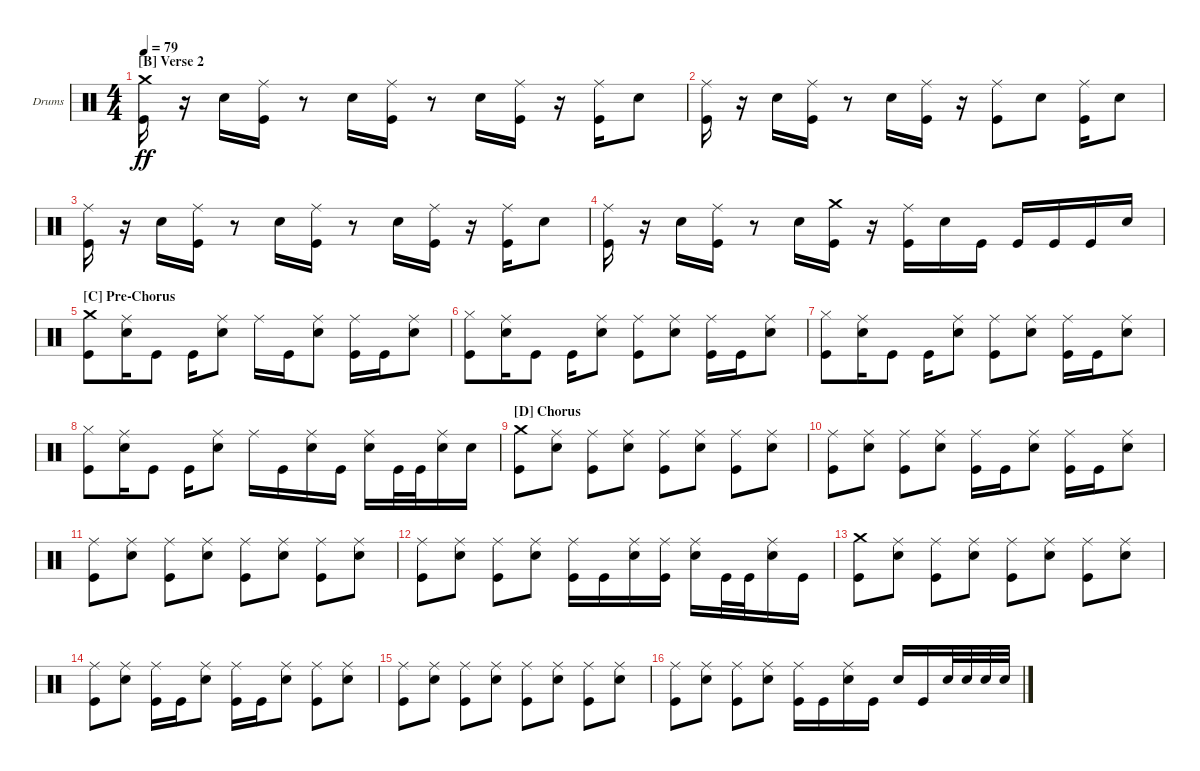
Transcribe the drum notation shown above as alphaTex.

\bracketExtendMode groupsimilarinstruments
\firstSystemTrackNameOrientation horizontal
\otherSystemsTrackNameOrientation horizontal
\track ("Drums" "Drums") {instrument percussion}
\staff {score}
\articulation defaults
\ts (4 4)
\section ("B" "Verse 2")
\tempo 79
\clef neutral
\ks c
("Kick (hit)" "Crash medium (hit)").16{dy ff beam split} r.16{beam split} "Snare (hit) 2".16 ("Kick (hit)" "Ride (middle)").16 r.8 "Snare (hit) 2".16 ("Kick (hit)" "Ride (middle)").16 r.8 "Snare (hit) 2".16 ("Kick (hit)" "Ride (middle)").16 r.16 ("Kick (hit)" "Ride (middle)").16 "Snare (hit) 2".8 |
("Kick (hit)" "Ride (middle)").16{beam split} r.16{beam split} "Snare (hit) 2".16 ("Kick (hit)" "Ride (middle)").16 r.8 "Snare (hit) 2".16 ("Kick (hit)" "Ride (middle)").16 r.16 ("Kick (hit)" "Ride (middle)").8 "Snare (hit) 2".8 ("Kick (hit)" "Ride (middle)").16 "Snare (hit) 2".8 |
("Kick (hit)" "Ride (middle)").16{beam split} r.16{beam split} "Snare (hit) 2".16 ("Kick (hit)" "Ride (middle)").16 r.8 "Snare (hit) 2".16 ("Kick (hit)" "Ride (middle)").16 r.8 "Snare (hit) 2".16 ("Kick (hit)" "Ride (middle)").16 r.16 ("Kick (hit)" "Ride (middle)").16 "Snare (hit) 2".8 |
("Kick (hit)" "Ride (middle)").16{beam split} r.16{beam split} "Snare (hit) 2".16 ("Kick (hit)" "Ride (middle)").16 r.8 "Snare (hit) 2".16 ("Kick (hit)" "Crash medium (hit)").16 r.16 ("Kick (hit)" "Ride (middle)").16 "Snare (hit) 2".16 "Kick (hit)".16 "Kick (hit)".16 "Kick (hit)".16 "Kick (hit)".16 "Snare (hit) 2".16 |
\section ("C" "Pre-Chorus")
("Kick (hit)" "Crash medium (hit)").8 ("Snare (hit) 2" "Ride (middle)").16 "Kick (hit)".8 "Kick (hit)".16 ("Snare (hit) 2" "Ride (middle)").8 "Ride (middle)".16 "Kick (hit)".16 ("Snare (hit) 2" "Ride (middle)").8 ("Kick (hit)" "Ride (middle)").16 "Kick (hit)".16 ("Snare (hit) 2" "Ride (middle)").8 |
("Kick (hit)" "Hi-Hat (closed)").8 ("Snare (hit) 2" "Ride (middle)").16 "Kick (hit)".8 "Kick (hit)".16 ("Snare (hit) 2" "Ride (middle)").8 ("Ride (middle)" "Kick (hit)").8 ("Snare (hit) 2" "Ride (middle)").8 ("Kick (hit)" "Ride (middle)").16 "Kick (hit)".16 ("Snare (hit) 2" "Ride (middle)").8 |
("Kick (hit)" "Hi-Hat (closed)").8 ("Snare (hit) 2" "Ride (middle)").16 "Kick (hit)".8 "Kick (hit)".16 ("Snare (hit) 2" "Ride (middle)").8 ("Ride (middle)" "Kick (hit)").8 ("Snare (hit) 2" "Ride (middle)").8 ("Kick (hit)" "Ride (middle)").16 "Kick (hit)".16 ("Snare (hit) 2" "Ride (middle)").8 |
("Kick (hit)" "Hi-Hat (closed)").8 ("Snare (hit) 2" "Ride (middle)").16 "Kick (hit)".8 "Kick (hit)".16 ("Snare (hit) 2" "Ride (middle)").8 "Ride (middle)".16 "Kick (hit)".16 ("Snare (hit) 2" "Ride (middle)").16 "Kick (hit)".16 ("Ride (middle)" "Snare (hit) 2").16 "Kick (hit)".32 "Kick (hit)".32 ("Snare (hit) 2" "Ride (middle)").16 "Snare (hit) 2".16 |
\section ("D" "Chorus")
("Kick (hit)" "Crash medium (hit)").8 ("Snare (hit) 2" "Ride (middle)").8 ("Kick (hit)" "Ride (middle)").8 ("Snare (hit) 2" "Ride (middle)").8 ("Kick (hit)" "Ride (middle)").8 ("Snare (hit) 2" "Ride (middle)").8 ("Kick (hit)" "Ride (middle)").8 ("Snare (hit) 2" "Ride (middle)").8 |
("Kick (hit)" "Ride (middle)").8 ("Snare (hit) 2" "Ride (middle)").8 ("Kick (hit)" "Ride (middle)").8 ("Snare (hit) 2" "Ride (middle)").8 ("Kick (hit)" "Ride (middle)").16 "Kick (hit)".16 ("Snare (hit) 2" "Ride (middle)").8 ("Kick (hit)" "Ride (middle)").16 "Kick (hit)".16 ("Snare (hit) 2" "Ride (middle)").8 |
("Kick (hit)" "Ride (middle)").8 ("Snare (hit) 2" "Ride (middle)").8 ("Kick (hit)" "Ride (middle)").8 ("Snare (hit) 2" "Ride (middle)").8 ("Kick (hit)" "Ride (middle)").8 ("Snare (hit) 2" "Ride (middle)").8 ("Kick (hit)" "Ride (middle)").8 ("Snare (hit) 2" "Ride (middle)").8 |
("Kick (hit)" "Ride (middle)").8 ("Snare (hit) 2" "Ride (middle)").8 ("Kick (hit)" "Ride (middle)").8 ("Snare (hit) 2" "Ride (middle)").8 ("Kick (hit)" "Ride (middle)").16 "Kick (hit)".16 ("Snare (hit) 2" "Ride (middle)").16 ("Kick (hit)" "Ride (middle)").16 ("Ride (middle)" "Snare (hit) 2").16 "Kick (hit)".32 "Kick (hit)".32 ("Snare (hit) 2" "Ride (middle)").16 "Kick (hit)".16 |
("Kick (hit)" "Crash medium (hit)").8 ("Snare (hit) 2" "Ride (middle)").8 ("Kick (hit)" "Ride (middle)").8 ("Snare (hit) 2" "Ride (middle)").8 ("Kick (hit)" "Ride (middle)").8 ("Snare (hit) 2" "Ride (middle)").8 ("Kick (hit)" "Ride (middle)").8 ("Snare (hit) 2" "Ride (middle)").8 |
("Kick (hit)" "Ride (middle)").8 ("Snare (hit) 2" "Ride (middle)").8 ("Kick (hit)" "Ride (middle)").16 "Kick (hit)".16 ("Snare (hit) 2" "Ride (middle)").8 ("Kick (hit)" "Ride (middle)").16 "Kick (hit)".16 ("Snare (hit) 2" "Ride (middle)").8 ("Kick (hit)" "Ride (middle)").8 ("Snare (hit) 2" "Ride (middle)").8 |
("Kick (hit)" "Ride (middle)").8 ("Snare (hit) 2" "Ride (middle)").8 ("Kick (hit)" "Ride (middle)").8 ("Snare (hit) 2" "Ride (middle)").8 ("Kick (hit)" "Ride (middle)").8 ("Snare (hit) 2" "Ride (middle)").8 ("Kick (hit)" "Ride (middle)").8 ("Snare (hit) 2" "Ride (middle)").8 |
("Kick (hit)" "Ride (middle)").8 ("Snare (hit) 2" "Ride (middle)").8 ("Kick (hit)" "Ride (middle)").8 ("Snare (hit) 2" "Ride (middle)").8 ("Kick (hit)" "Ride (middle)").16 "Kick (hit)".16 ("Snare (hit) 2" "Ride (middle)").16 "Kick (hit)".16 "Snare (hit) 2".16 "Kick (hit)".16 "Snare (hit) 2".32 "Snare (hit) 2".32 "Snare (hit) 2".32 "Snare (hit) 2".32
